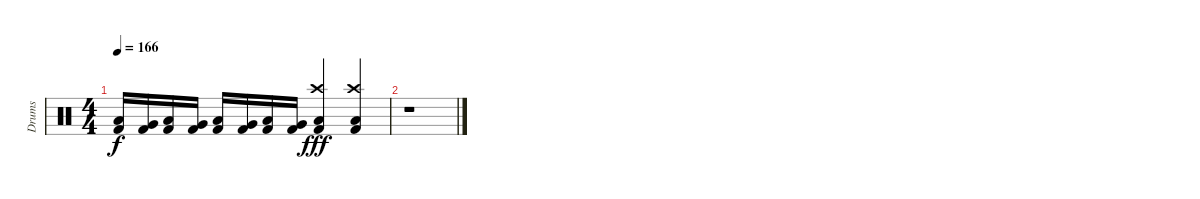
\track ("Drums" "Drums") {instrument percussion}
\staff {score}
\articulation defaults
\ts (4 4)
\tempo 166
\clef neutral
\ks c
("Low Tom (hit)" "Kick (hit) 2").16{dy f} ("Very Low Tom (hit)" "Kick (hit) 2").16 ("Low Tom (hit)" "Kick (hit) 2").16 ("Very Low Tom (hit)" "Kick (hit) 2").16 ("Low Tom (hit)" "Kick (hit) 2").16 ("Very Low Tom (hit)" "Kick (hit) 2").16 ("Low Tom (hit)" "Kick (hit) 2").16 ("Very Low Tom (hit)" "Kick (hit) 2").16 ("Crash high (hit)" "Low Floor Tom (hit)" "Kick (hit) 2").4{dy fff} ("Crash high (hit)" "Low Floor Tom (hit)" "Kick (hit) 2").4 |
r.1
